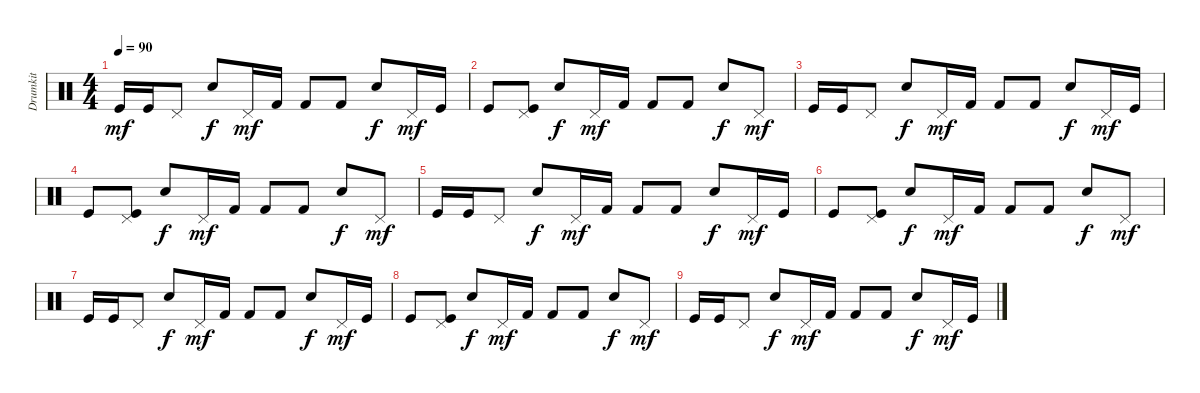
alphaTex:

\track ("Drumkit" "Drumkit") {instrument percussion}
\staff {score}
\articulation defaults
\ts (4 4)
\tempo 90
\clef neutral
\ks c "Kick (hit)".16{dy mf} "Kick (hit)".16 "Pedal Hi-Hat (hit)".8 "Snare (hit) 2".8{dy f} "Pedal Hi-Hat (hit)".16{dy mf} "Kick (hit) 2".16 "Kick (hit) 2".8 "Kick (hit) 2".8 "Snare (hit) 2".8{dy f} "Pedal Hi-Hat (hit)".16{dy mf} "Kick (hit)".16
|
"Kick (hit)".8 ("Pedal Hi-Hat (hit)" "Kick (hit)").8 "Snare (hit) 2".8{dy f} "Pedal Hi-Hat (hit)".16{dy mf} "Kick (hit) 2".16 "Kick (hit) 2".8 "Kick (hit) 2".8 "Snare (hit) 2".8{dy f} "Pedal Hi-Hat (hit)".8{dy mf} |
"Kick (hit)".16 "Kick (hit)".16 "Pedal Hi-Hat (hit)".8 "Snare (hit) 2".8{dy f} "Pedal Hi-Hat (hit)".16{dy mf} "Kick (hit) 2".16 "Kick (hit) 2".8 "Kick (hit) 2".8 "Snare (hit) 2".8{dy f} "Pedal Hi-Hat (hit)".16{dy mf} "Kick (hit)".16 |
"Kick (hit)".8 ("Pedal Hi-Hat (hit)" "Kick (hit)").8 "Snare (hit) 2".8{dy f} "Pedal Hi-Hat (hit)".16{dy mf} "Kick (hit) 2".16 "Kick (hit) 2".8 "Kick (hit) 2".8 "Snare (hit) 2".8{dy f} "Pedal Hi-Hat (hit)".8{dy mf} |
"Kick (hit)".16 "Kick (hit)".16 "Pedal Hi-Hat (hit)".8 "Snare (hit) 2".8{dy f} "Pedal Hi-Hat (hit)".16{dy mf} "Kick (hit) 2".16 "Kick (hit) 2".8 "Kick (hit) 2".8 "Snare (hit) 2".8{dy f} "Pedal Hi-Hat (hit)".16{dy mf} "Kick (hit)".16 |
"Kick (hit)".8 ("Pedal Hi-Hat (hit)" "Kick (hit)").8 "Snare (hit) 2".8{dy f} "Pedal Hi-Hat (hit)".16{dy mf} "Kick (hit) 2".16 "Kick (hit) 2".8 "Kick (hit) 2".8 "Snare (hit) 2".8{dy f} "Pedal Hi-Hat (hit)".8{dy mf} |
"Kick (hit)".16 "Kick (hit)".16 "Pedal Hi-Hat (hit)".8 "Snare (hit) 2".8{dy f} "Pedal Hi-Hat (hit)".16{dy mf} "Kick (hit) 2".16 "Kick (hit) 2".8 "Kick (hit) 2".8 "Snare (hit) 2".8{dy f} "Pedal Hi-Hat (hit)".16{dy mf} "Kick (hit)".16 |
"Kick (hit)".8 ("Pedal Hi-Hat (hit)" "Kick (hit)").8 "Snare (hit) 2".8{dy f} "Pedal Hi-Hat (hit)".16{dy mf} "Kick (hit) 2".16 "Kick (hit) 2".8 "Kick (hit) 2".8 "Snare (hit) 2".8{dy f} "Pedal Hi-Hat (hit)".8{dy mf} |
"Kick (hit)".16 "Kick (hit)".16 "Pedal Hi-Hat (hit)".8 "Snare (hit) 2".8{dy f} "Pedal Hi-Hat (hit)".16{dy mf} "Kick (hit) 2".16 "Kick (hit) 2".8 "Kick (hit) 2".8 "Snare (hit) 2".8{dy f} "Pedal Hi-Hat (hit)".16{dy mf} "Kick (hit)".16
